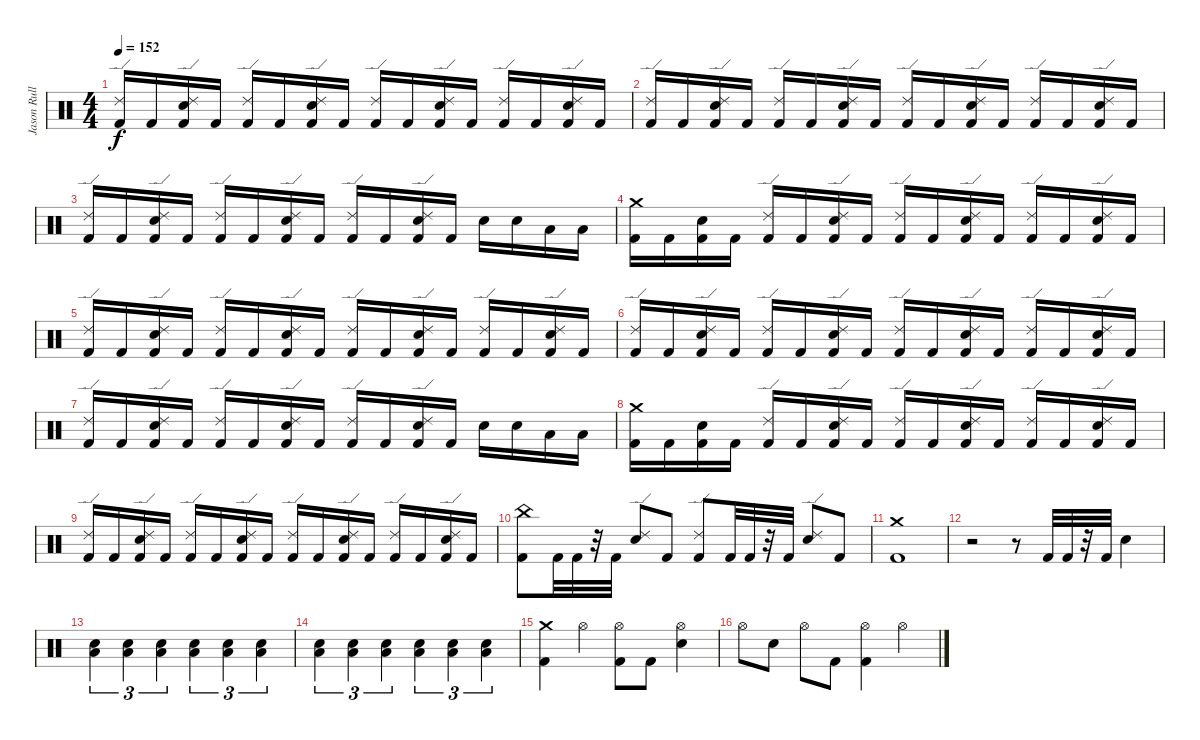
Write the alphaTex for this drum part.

\track ("Jason Rullo" "Jason Rull") {instrument percussion}
\staff {score}
\articulation defaults
\ts (4 4)
\tempo 152
\clef neutral
\ks c
("Ride (edge) 2" "Kick (hit) 2").16{dy f} "Kick (hit) 2".16 ("Electric Snare (hit)" "Ride (edge) 2" "Kick (hit) 2").16 "Kick (hit) 2".16 ("Ride (edge) 2" "Kick (hit) 2").16 "Kick (hit) 2".16 ("Electric Snare (hit)" "Ride (edge) 2" "Kick (hit) 2").16 "Kick (hit) 2".16 ("Ride (edge) 2" "Kick (hit) 2").16 "Kick (hit) 2".16 ("Electric Snare (hit)" "Ride (edge) 2" "Kick (hit) 2").16 "Kick (hit) 2".16 ("Ride (edge) 2" "Kick (hit) 2").16 "Kick (hit) 2".16 ("Electric Snare (hit)" "Ride (edge) 2" "Kick (hit) 2").16 "Kick (hit) 2".16 |
("Ride (edge) 2" "Kick (hit) 2").16 "Kick (hit) 2".16 ("Electric Snare (hit)" "Ride (edge) 2" "Kick (hit) 2").16 "Kick (hit) 2".16 ("Ride (edge) 2" "Kick (hit) 2").16 "Kick (hit) 2".16 ("Electric Snare (hit)" "Ride (edge) 2" "Kick (hit) 2").16 "Kick (hit) 2".16 ("Ride (edge) 2" "Kick (hit) 2").16 "Kick (hit) 2".16 ("Electric Snare (hit)" "Ride (edge) 2" "Kick (hit) 2").16 "Kick (hit) 2".16 ("Ride (edge) 2" "Kick (hit) 2").16 "Kick (hit) 2".16 ("Electric Snare (hit)" "Ride (edge) 2" "Kick (hit) 2").16 "Kick (hit) 2".16 |
("Ride (edge) 2" "Kick (hit) 2").16 "Kick (hit) 2".16 ("Electric Snare (hit)" "Ride (edge) 2" "Kick (hit) 2").16 "Kick (hit) 2".16 ("Ride (edge) 2" "Kick (hit) 2").16 "Kick (hit) 2".16 ("Electric Snare (hit)" "Ride (edge) 2" "Kick (hit) 2").16 "Kick (hit) 2".16 ("Ride (edge) 2" "Kick (hit) 2").16 "Kick (hit) 2".16 ("Electric Snare (hit)" "Ride (edge) 2" "Kick (hit) 2").16 "Kick (hit) 2".16 "Electric Snare (hit)".16 "Electric Snare (hit)".16 "Low Tom (hit)".16 "Low Tom (hit)".16 |
("Crash medium (hit)" "Kick (hit) 2").16 "Kick (hit) 2".16 ("Electric Snare (hit)" "Kick (hit) 2").16 "Kick (hit) 2".16 ("Ride (edge) 2" "Kick (hit) 2").16 "Kick (hit) 2".16 ("Electric Snare (hit)" "Ride (edge) 2" "Kick (hit) 2").16 "Kick (hit) 2".16 ("Ride (edge) 2" "Kick (hit) 2").16 "Kick (hit) 2".16 ("Electric Snare (hit)" "Ride (edge) 2" "Kick (hit) 2").16 "Kick (hit) 2".16 ("Ride (edge) 2" "Kick (hit) 2").16 "Kick (hit) 2".16 ("Electric Snare (hit)" "Ride (edge) 2" "Kick (hit) 2").16 "Kick (hit) 2".16 |
("Ride (edge) 2" "Kick (hit) 2").16 "Kick (hit) 2".16 ("Electric Snare (hit)" "Ride (edge) 2" "Kick (hit) 2").16 "Kick (hit) 2".16 ("Ride (edge) 2" "Kick (hit) 2").16 "Kick (hit) 2".16 ("Electric Snare (hit)" "Ride (edge) 2" "Kick (hit) 2").16 "Kick (hit) 2".16 ("Ride (edge) 2" "Kick (hit) 2").16 "Kick (hit) 2".16 ("Electric Snare (hit)" "Ride (edge) 2" "Kick (hit) 2").16 "Kick (hit) 2".16 ("Ride (edge) 2" "Kick (hit) 2").16 "Kick (hit) 2".16 ("Electric Snare (hit)" "Ride (edge) 2" "Kick (hit) 2").16 "Kick (hit) 2".16 |
("Ride (edge) 2" "Kick (hit) 2").16 "Kick (hit) 2".16 ("Electric Snare (hit)" "Ride (edge) 2" "Kick (hit) 2").16 "Kick (hit) 2".16 ("Ride (edge) 2" "Kick (hit) 2").16 "Kick (hit) 2".16 ("Electric Snare (hit)" "Ride (edge) 2" "Kick (hit) 2").16 "Kick (hit) 2".16 ("Ride (edge) 2" "Kick (hit) 2").16 "Kick (hit) 2".16 ("Electric Snare (hit)" "Ride (edge) 2" "Kick (hit) 2").16 "Kick (hit) 2".16 ("Ride (edge) 2" "Kick (hit) 2").16 "Kick (hit) 2".16 ("Electric Snare (hit)" "Ride (edge) 2" "Kick (hit) 2").16 "Kick (hit) 2".16 |
("Ride (edge) 2" "Kick (hit) 2").16 "Kick (hit) 2".16 ("Electric Snare (hit)" "Ride (edge) 2" "Kick (hit) 2").16 "Kick (hit) 2".16 ("Ride (edge) 2" "Kick (hit) 2").16 "Kick (hit) 2".16 ("Electric Snare (hit)" "Ride (edge) 2" "Kick (hit) 2").16 "Kick (hit) 2".16 ("Ride (edge) 2" "Kick (hit) 2").16 "Kick (hit) 2".16 ("Electric Snare (hit)" "Ride (edge) 2" "Kick (hit) 2").16 "Kick (hit) 2".16 "Electric Snare (hit)".16 "Electric Snare (hit)".16 "Low Tom (hit)".16 "Low Tom (hit)".16 |
("Crash medium (hit)" "Kick (hit) 2").16 "Kick (hit) 2".16 ("Electric Snare (hit)" "Kick (hit) 2").16 "Kick (hit) 2".16 ("Ride (edge) 2" "Kick (hit) 2").16 "Kick (hit) 2".16 ("Electric Snare (hit)" "Ride (edge) 2" "Kick (hit) 2").16 "Kick (hit) 2".16 ("Ride (edge) 2" "Kick (hit) 2").16 "Kick (hit) 2".16 ("Electric Snare (hit)" "Ride (edge) 2" "Kick (hit) 2").16 "Kick (hit) 2".16 ("Ride (edge) 2" "Kick (hit) 2").16 "Kick (hit) 2".16 ("Electric Snare (hit)" "Ride (edge) 2" "Kick (hit) 2").16 "Kick (hit) 2".16 |
("Ride (edge) 2" "Kick (hit) 2").16 "Kick (hit) 2".16 ("Electric Snare (hit)" "Ride (edge) 2" "Kick (hit) 2").16 "Kick (hit) 2".16 ("Ride (edge) 2" "Kick (hit) 2").16 "Kick (hit) 2".16 ("Electric Snare (hit)" "Ride (edge) 2" "Kick (hit) 2").16 "Kick (hit) 2".16 ("Ride (edge) 2" "Kick (hit) 2").16 "Kick (hit) 2".16 ("Electric Snare (hit)" "Ride (edge) 2" "Kick (hit) 2").16 "Kick (hit) 2".16 ("Ride (edge) 2" "Kick (hit) 2").16 "Kick (hit) 2".16 ("Electric Snare (hit)" "Ride (edge) 2" "Kick (hit) 2").16 "Kick (hit) 2".16 |
("China (hit)" "Kick (hit) 2").8 "Kick (hit) 2".32 "Kick (hit) 2".32 r.32 "Kick (hit) 2".32 ("Ride (edge) 2" "Electric Snare (hit)").8 "Kick (hit) 2".8 ("Ride (edge) 2" "Kick (hit) 2").8 "Kick (hit) 2".32 "Kick (hit) 2".32 r.32 "Kick (hit) 2".32 ("Ride (edge) 2" "Electric Snare (hit)").8 "Kick (hit) 2".8 |
("Crash medium (hit)" "Kick (hit) 2").1 |
r.2 r.8 "Kick (hit) 2".32 "Kick (hit) 2".32 r.32 "Kick (hit) 2".32 "Electric Snare (hit)".4 |
("Low Tom (hit)" "Electric Snare (hit)").4{tu (3 2) volume 11} ("Low Tom (hit)" "Electric Snare (hit)").4{tu (3 2) volume 12} ("Low Tom (hit)" "Electric Snare (hit)").4{tu (3 2) volume 12} ("Low Tom (hit)" "Electric Snare (hit)").4{tu (3 2) volume 12} ("Low Tom (hit)" "Electric Snare (hit)").4{tu (3 2) volume 13} ("Low Tom (hit)" "Electric Snare (hit)").4{tu (3 2) volume 13} |
("Low Tom (hit)" "Electric Snare (hit)").4{tu (3 2) volume 14} ("Low Tom (hit)" "Electric Snare (hit)").4{tu (3 2) volume 14} ("Low Tom (hit)" "Electric Snare (hit)").4{tu (3 2) volume 14} ("Low Tom (hit)" "Electric Snare (hit)").4{tu (3 2) volume 15} ("Low Tom (hit)" "Electric Snare (hit)").4{tu (3 2) volume 15} ("Low Tom (hit)" "Electric Snare (hit)").4{tu (3 2) volume 15} |
("Kick (hit) 2" "Crash medium (hit)").4{volume 16} "Hi-Hat (open)".4 ("Hi-Hat (open)" "Kick (hit) 2").8 "Kick (hit) 2".8 ("Electric Snare (hit)" "Hi-Hat (open)").4 |
"Hi-Hat (open)".8 "Electric Snare (hit)".8 "Hi-Hat (open)".8 "Kick (hit) 2".8 ("Hi-Hat (open)" "Kick (hit) 2").4 "Hi-Hat (open)".4
